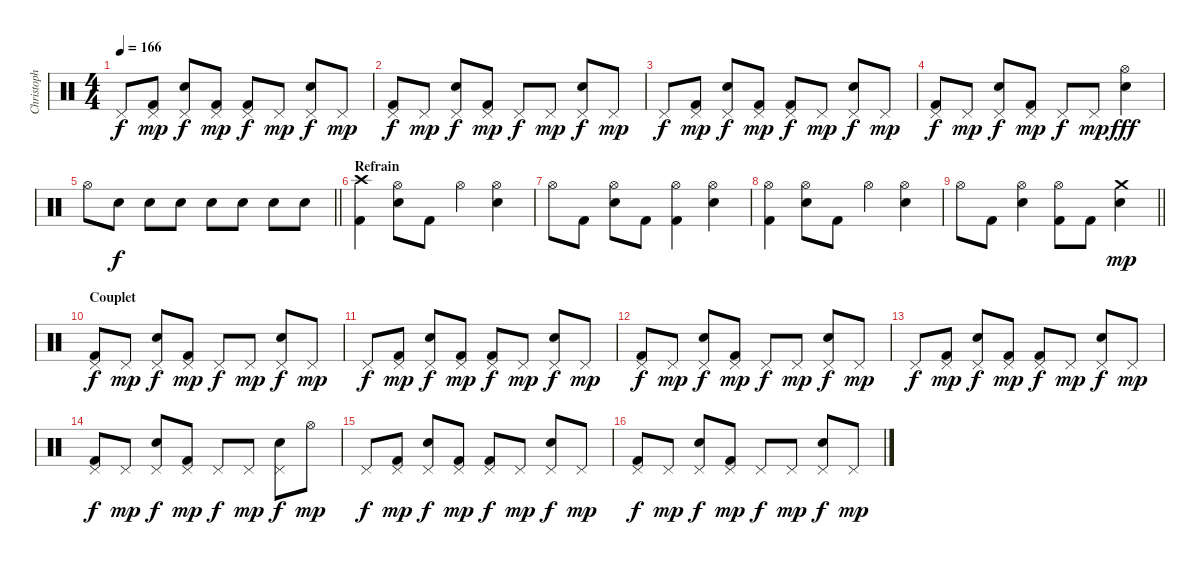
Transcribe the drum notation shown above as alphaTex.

\track ("Christoph" "Christoph") {instrument percussion}
\staff {score}
\articulation defaults
\ts (4 4)
\tempo 166
\clef neutral
\ks c "Pedal Hi-Hat (hit)".8{dy f}
("Pedal Hi-Hat (hit)" "Kick (hit) 2").8{dy mp} ("Pedal Hi-Hat (hit)" "Electric Snare (hit)").8{dy f} ("Pedal Hi-Hat (hit)" "Kick (hit) 2").8{dy mp} ("Pedal Hi-Hat (hit)" "Kick (hit) 2").8{dy f} "Pedal Hi-Hat (hit)".8{dy mp} ("Pedal Hi-Hat (hit)" "Electric Snare (hit)").8{dy f} "Pedal Hi-Hat (hit)".8{dy mp} |
("Pedal Hi-Hat (hit)" "Kick (hit) 2").8{dy f} "Pedal Hi-Hat (hit)".8{dy mp} ("Pedal Hi-Hat (hit)" "Electric Snare (hit)").8{dy f} ("Pedal Hi-Hat (hit)" "Kick (hit) 2").8{dy mp} "Pedal Hi-Hat (hit)".8{dy f} "Pedal Hi-Hat (hit)".8{dy mp} ("Pedal Hi-Hat (hit)" "Electric Snare (hit)").8{dy f} "Pedal Hi-Hat (hit)".8{dy mp} |
"Pedal Hi-Hat (hit)".8{dy f} ("Pedal Hi-Hat (hit)" "Kick (hit) 2").8{dy mp} ("Pedal Hi-Hat (hit)" "Electric Snare (hit)").8{dy f} ("Pedal Hi-Hat (hit)" "Kick (hit) 2").8{dy mp} ("Pedal Hi-Hat (hit)" "Kick (hit) 2").8{dy f} "Pedal Hi-Hat (hit)".8{dy mp} ("Pedal Hi-Hat (hit)" "Electric Snare (hit)").8{dy f} "Pedal Hi-Hat (hit)".8{dy mp} |
("Pedal Hi-Hat (hit)" "Kick (hit) 2").8{dy f} "Pedal Hi-Hat (hit)".8{dy mp} ("Pedal Hi-Hat (hit)" "Electric Snare (hit)").8{dy f} ("Pedal Hi-Hat (hit)" "Kick (hit) 2").8{dy mp} "Pedal Hi-Hat (hit)".8{dy f} "Pedal Hi-Hat (hit)".8{dy mp} ("Hi-Hat (open)" "Electric Snare (hit)").4{dy fff} |
\barLineRight lightlight "Hi-Hat (open)".8 "Electric Snare (hit)".8{dy f} "Electric Snare (hit)".8 "Electric Snare (hit)".8 "Electric Snare (hit)".8 "Electric Snare (hit)".8 "Electric Snare (hit)".8 "Electric Snare (hit)".8
|
\section ("" "Refrain")
("Crash high (hit)" "Kick (hit) 2").4 ("Hi-Hat (open)" "Electric Snare (hit)").8 "Kick (hit) 2".8 "Hi-Hat (open)".4 ("Hi-Hat (open)" "Electric Snare (hit)").4 |
"Hi-Hat (open)".8 "Kick (hit) 2".8 ("Hi-Hat (open)" "Electric Snare (hit)").8 "Kick (hit) 2".8 ("Hi-Hat (open)" "Kick (hit) 2").4 ("Hi-Hat (open)" "Electric Snare (hit)").4 |
("Hi-Hat (open)" "Kick (hit) 2").4 ("Hi-Hat (open)" "Electric Snare (hit)").8 "Kick (hit) 2".8 "Hi-Hat (open)".4 ("Hi-Hat (open)" "Electric Snare (hit)").4 |
\barLineRight lightlight "Hi-Hat (open)".8 "Kick (hit) 2".8
("Hi-Hat (open)" "Electric Snare (hit)").4 ("Hi-Hat (open)" "Kick (hit) 2").8 "Kick (hit) 2".8 ("Crash medium (hit)" "Electric Snare (hit)").4{dy mp} |
\section ("" "Couplet")
("Pedal Hi-Hat (hit)" "Kick (hit) 2").8{dy f} "Pedal Hi-Hat (hit)".8{dy mp} ("Pedal Hi-Hat (hit)" "Electric Snare (hit)").8{dy f} ("Pedal Hi-Hat (hit)" "Kick (hit) 2").8{dy mp} "Pedal Hi-Hat (hit)".8{dy f} "Pedal Hi-Hat (hit)".8{dy mp} ("Pedal Hi-Hat (hit)" "Electric Snare (hit)").8{dy f} "Pedal Hi-Hat (hit)".8{dy mp} |
"Pedal Hi-Hat (hit)".8{dy f} ("Pedal Hi-Hat (hit)" "Kick (hit) 2").8{dy mp} ("Pedal Hi-Hat (hit)" "Electric Snare (hit)").8{dy f} ("Pedal Hi-Hat (hit)" "Kick (hit) 2").8{dy mp} ("Pedal Hi-Hat (hit)" "Kick (hit) 2").8{dy f} "Pedal Hi-Hat (hit)".8{dy mp} ("Pedal Hi-Hat (hit)" "Electric Snare (hit)").8{dy f} "Pedal Hi-Hat (hit)".8{dy mp} |
("Pedal Hi-Hat (hit)" "Kick (hit) 2").8{dy f} "Pedal Hi-Hat (hit)".8{dy mp} ("Pedal Hi-Hat (hit)" "Electric Snare (hit)").8{dy f} ("Pedal Hi-Hat (hit)" "Kick (hit) 2").8{dy mp} "Pedal Hi-Hat (hit)".8{dy f} "Pedal Hi-Hat (hit)".8{dy mp} ("Pedal Hi-Hat (hit)" "Electric Snare (hit)").8{dy f} "Pedal Hi-Hat (hit)".8{dy mp} |
"Pedal Hi-Hat (hit)".8{dy f} ("Pedal Hi-Hat (hit)" "Kick (hit) 2").8{dy mp} ("Pedal Hi-Hat (hit)" "Electric Snare (hit)").8{dy f} ("Pedal Hi-Hat (hit)" "Kick (hit) 2").8{dy mp} ("Pedal Hi-Hat (hit)" "Kick (hit) 2").8{dy f} "Pedal Hi-Hat (hit)".8{dy mp} ("Pedal Hi-Hat (hit)" "Electric Snare (hit)").8{dy f} "Pedal Hi-Hat (hit)".8{dy mp} |
("Pedal Hi-Hat (hit)" "Kick (hit) 2").8{dy f} "Pedal Hi-Hat (hit)".8{dy mp} ("Pedal Hi-Hat (hit)" "Electric Snare (hit)").8{dy f} ("Pedal Hi-Hat (hit)" "Kick (hit) 2").8{dy mp} "Pedal Hi-Hat (hit)".8{dy f} "Pedal Hi-Hat (hit)".8{dy mp} ("Pedal Hi-Hat (hit)" "Electric Snare (hit)").8{dy f} "Hi-Hat (open)".8{dy mp} |
"Pedal Hi-Hat (hit)".8{dy f} ("Pedal Hi-Hat (hit)" "Kick (hit) 2").8{dy mp} ("Pedal Hi-Hat (hit)" "Electric Snare (hit)").8{dy f} ("Pedal Hi-Hat (hit)" "Kick (hit) 2").8{dy mp} ("Pedal Hi-Hat (hit)" "Kick (hit) 2").8{dy f} "Pedal Hi-Hat (hit)".8{dy mp} ("Pedal Hi-Hat (hit)" "Electric Snare (hit)").8{dy f} "Pedal Hi-Hat (hit)".8{dy mp} |
("Pedal Hi-Hat (hit)" "Kick (hit) 2").8{dy f} "Pedal Hi-Hat (hit)".8{dy mp} ("Pedal Hi-Hat (hit)" "Electric Snare (hit)").8{dy f} ("Pedal Hi-Hat (hit)" "Kick (hit) 2").8{dy mp} "Pedal Hi-Hat (hit)".8{dy f} "Pedal Hi-Hat (hit)".8{dy mp} ("Pedal Hi-Hat (hit)" "Electric Snare (hit)").8{dy f} "Pedal Hi-Hat (hit)".8{dy mp}
